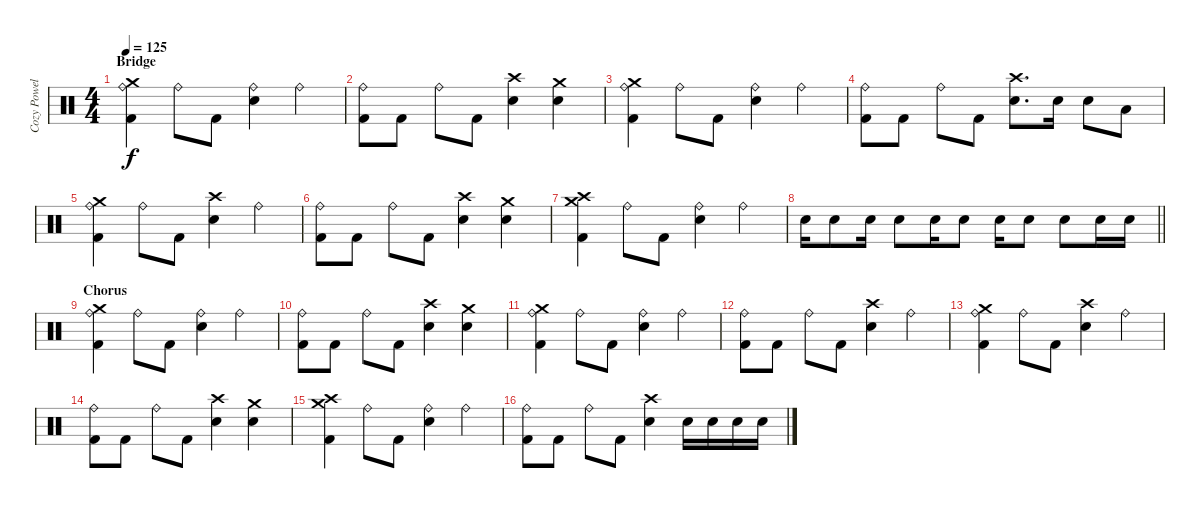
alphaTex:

\track ("Cozy Powell " "Cozy Powel") {instrument percussion}
\staff {score}
\articulation defaults
\ts (4 4)
\section ("" "Bridge")
\tempo 125
\clef neutral
\ks c
("Crash medium (hit)" "Ride (bell)" "Kick (hit) 2").4{dy f} "Ride (bell)".8 "Kick (hit) 2".8 ("Ride (bell)" "Snare (hit) 2").4 "Ride (bell)".4 |
("Ride (bell)" "Kick (hit) 2").8 "Kick (hit) 2".8 "Ride (bell)".8 "Kick (hit) 2".8 ("Crash high (hit)" "Snare (hit) 2").4 ("Crash medium (hit)" "Snare (hit) 2").4 |
("Crash medium (hit)" "Ride (bell)" "Kick (hit) 2").4 "Ride (bell)".8 "Kick (hit) 2".8 ("Ride (bell)" "Snare (hit) 2").4 "Ride (bell)".4 |
("Ride (bell)" "Kick (hit) 2").8 "Kick (hit) 2".8 "Ride (bell)".8 "Kick (hit) 2".8 ("Crash high (hit)" "Snare (hit) 2").8{d} "Snare (hit) 2".16 "Snare (hit) 2".8 "Low Tom (hit)".8 |
("Crash medium (hit)" "Ride (bell)" "Kick (hit) 2").4 "Ride (bell)".8 "Kick (hit) 2".8 ("Crash high (hit)" "Snare (hit) 2").4 "Ride (bell)".4 |
("Ride (bell)" "Kick (hit) 2").8 "Kick (hit) 2".8 "Ride (bell)".8 "Kick (hit) 2".8 ("Crash high (hit)" "Snare (hit) 2").4 ("Crash medium (hit)" "Snare (hit) 2").4 |
("Crash medium (hit)" "Crash high (hit)" "Kick (hit) 2").4 "Ride (bell)".8 "Kick (hit) 2".8 ("Ride (bell)" "Snare (hit) 2").4 "Ride (bell)".4 |
\barLineRight lightlight "Snare (hit) 2".16 "Snare (hit) 2".8 "Snare (hit) 2".16 "Snare (hit) 2".8 "Snare (hit) 2".16 "Snare (hit) 2".8 "Snare (hit) 2".16 "Snare (hit) 2".8 "Snare (hit) 2".8 "Snare (hit) 2".16 "Snare (hit) 2".16
|
\section ("" "Chorus")
("Crash medium (hit)" "Ride (bell)" "Kick (hit) 2").4 "Ride (bell)".8 "Kick (hit) 2".8 ("Ride (bell)" "Snare (hit) 2").4 "Ride (bell)".4 |
("Ride (bell)" "Kick (hit) 2").8 "Kick (hit) 2".8 "Ride (bell)".8 "Kick (hit) 2".8 ("Crash high (hit)" "Snare (hit) 2").4 ("Crash medium (hit)" "Snare (hit) 2").4 |
("Crash medium (hit)" "Ride (bell)" "Kick (hit) 2").4 "Ride (bell)".8 "Kick (hit) 2".8 ("Ride (bell)" "Snare (hit) 2").4 "Ride (bell)".4 |
("Ride (bell)" "Kick (hit) 2").8 "Kick (hit) 2".8 "Ride (bell)".8 "Kick (hit) 2".8 ("Crash high (hit)" "Snare (hit) 2").4 "Ride (bell)".4 |
("Crash medium (hit)" "Ride (bell)" "Kick (hit) 2").4 "Ride (bell)".8 "Kick (hit) 2".8 ("Crash high (hit)" "Snare (hit) 2").4 "Ride (bell)".4 |
("Ride (bell)" "Kick (hit) 2").8 "Kick (hit) 2".8 "Ride (bell)".8 "Kick (hit) 2".8 ("Crash high (hit)" "Snare (hit) 2").4 ("Crash medium (hit)" "Snare (hit) 2").4 |
("Crash medium (hit)" "Crash high (hit)" "Kick (hit) 2").4 "Ride (bell)".8 "Kick (hit) 2".8 ("Ride (bell)" "Snare (hit) 2").4 "Ride (bell)".4 |
("Ride (bell)" "Kick (hit) 2").8 "Kick (hit) 2".8 "Ride (bell)".8 "Kick (hit) 2".8 ("Crash high (hit)" "Snare (hit) 2").4 "Snare (hit) 2".16 "Snare (hit) 2".16 "Snare (hit) 2".16 "Snare (hit) 2".16
